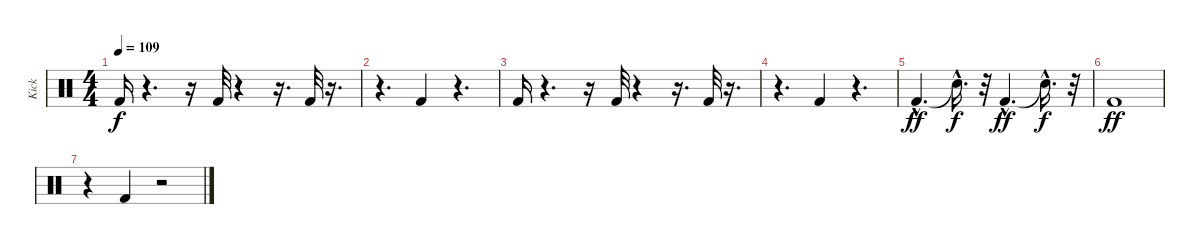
\track ("Kick" "Kick") {instrument percussion}
\staff {score}
\articulation defaults
\ts (4 4)
\tempo 109
\clef neutral
\ks c "Kick (hit) 2".16{dy f}
r.4{d} r.16 "Kick (hit) 2".32 r.4 r.16{d} "Kick (hit) 2".32 r.16{d} |
r.4{d} "Kick (hit) 2".4 r.4{d} |
"Kick (hit) 2".16 r.4{d} r.16 "Kick (hit) 2".32 r.4 r.16{d} "Kick (hit) 2".32 r.16{d} |
r.4{d} "Kick (hit) 2".4 r.4{d} |
"Kick (hit) 2"{hac}.4{d dy ff} "Snare (hit)"{hac t}.16{d dy f} r.32 "Kick (hit) 2"{hac}.4{d dy ff} "Snare (hit)"{hac t}.16{d dy f} r.32 |
"Kick (hit) 2".1{dy ff} |
r.4 "Kick (hit) 2".4 r.2
